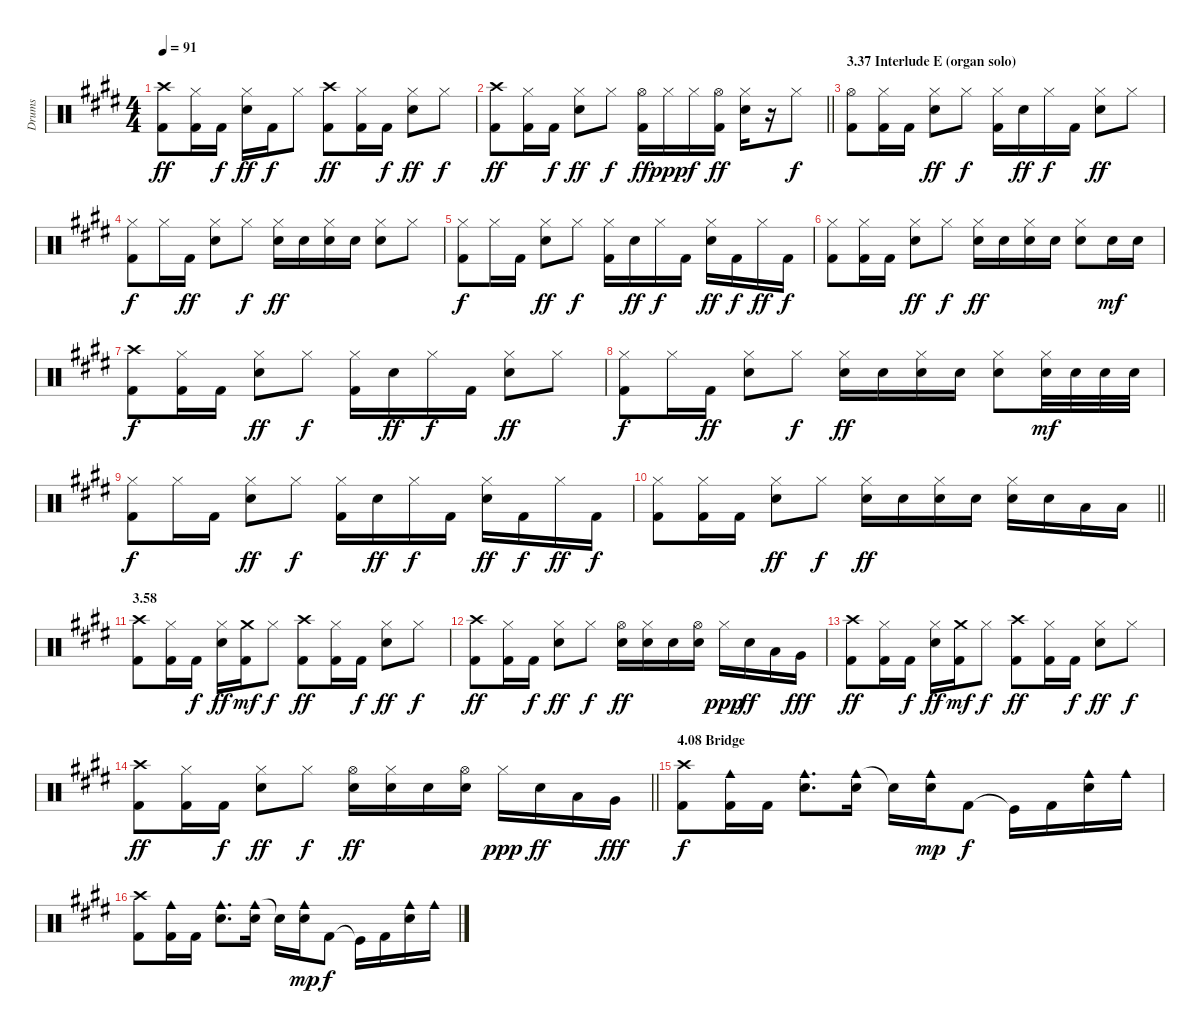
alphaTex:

\track ("Drums" "Drums") {instrument percussion}
\staff {score}
\articulation defaults
\ts (4 4)
\tempo 91
\clef neutral
\ks e
("Crash high (hit)" "Kick (hit) 2").8{dy ff} ("Hi-Hat (closed)" "Kick (hit) 2").16 "Kick (hit) 2".16{dy f} ("Hi-Hat (closed)" "Snare (hit) 2").16{dy ff} "Kick (hit) 2".16{dy f} "Hi-Hat (closed)".8 ("Crash high (hit)" "Kick (hit) 2").8{dy ff} ("Hi-Hat (closed)" "Kick (hit) 2").16 "Kick (hit) 2".16{dy f} ("Hi-Hat (closed)" "Snare (hit) 2").8{dy ff} "Hi-Hat (closed)".8{dy f} |
\barLineRight lightlight
("Crash high (hit)" "Kick (hit) 2").8{dy ff} ("Hi-Hat (closed)" "Kick (hit) 2").16 "Kick (hit) 2".16{dy f} ("Hi-Hat (closed)" "Snare (hit) 2").8{dy ff} "Hi-Hat (closed)".8{dy f} ("Hi-Hat (open)" "Kick (hit) 2").16{dy ff} "Hi-Hat (closed)".16{dy ppp} "Hi-Hat (closed)".16{dy f} ("Hi-Hat (open)" "Kick (hit) 2").16{dy ff} ("Hi-Hat (closed)" "Snare (hit) 2").16 r.16 "Hi-Hat (closed)".8{dy f} |
\section ("" "3.37 Interlude E (organ solo)")
("Hi-Hat (open)" "Kick (hit) 2").8 ("Hi-Hat (closed)" "Kick (hit) 2").16 "Kick (hit) 2".16 ("Hi-Hat (closed)" "Snare (hit) 2").8{dy ff} "Hi-Hat (closed)".8{dy f} ("Hi-Hat (closed)" "Kick (hit) 2").16 "Snare (hit) 2".16{dy ff} "Hi-Hat (closed)".16{dy f} "Kick (hit) 2".16 ("Hi-Hat (closed)" "Snare (hit) 2").8{dy ff} "Hi-Hat (closed)".8 |
("Hi-Hat (closed)" "Kick (hit) 2").8{dy f} "Hi-Hat (closed)".16 "Kick (hit) 2".16{dy ff} ("Hi-Hat (closed)" "Snare (hit) 2").8 "Hi-Hat (closed)".8{dy f} ("Hi-Hat (closed)" "Snare (hit) 2").16{dy ff} "Snare (hit) 2".16 ("Hi-Hat (closed)" "Snare (hit) 2").16 "Snare (hit) 2".16 ("Hi-Hat (closed)" "Snare (hit) 2").8 "Hi-Hat (closed)".8 |
("Hi-Hat (closed)" "Kick (hit) 2").8{dy f} "Hi-Hat (closed)".16 "Kick (hit) 2".16 ("Hi-Hat (closed)" "Snare (hit) 2").8{dy ff} "Hi-Hat (closed)".8{dy f} ("Hi-Hat (closed)" "Kick (hit) 2").16 "Snare (hit) 2".16{dy ff} "Hi-Hat (closed)".16{dy f} "Kick (hit) 2".16 ("Hi-Hat (closed)" "Snare (hit) 2").16{dy ff} "Kick (hit) 2".16{dy f} "Hi-Hat (closed)".16{dy ff} "Kick (hit) 2".16{dy f} |
("Hi-Hat (closed)" "Kick (hit) 2").8 ("Hi-Hat (closed)" "Kick (hit) 2").16 "Kick (hit) 2".16 ("Hi-Hat (closed)" "Snare (hit) 2").8{dy ff} "Hi-Hat (closed)".8{dy f} ("Hi-Hat (closed)" "Snare (hit) 2").16{dy ff} "Snare (hit) 2".16 ("Hi-Hat (closed)" "Snare (hit) 2").16 "Snare (hit) 2".16 ("Hi-Hat (closed)" "Snare (hit) 2").8 "Snare (hit) 2".16{dy mf} "Snare (hit) 2".16 |
("Crash high (hit)" "Kick (hit) 2").8{dy f} ("Hi-Hat (closed)" "Kick (hit) 2").16 "Kick (hit) 2".16 ("Hi-Hat (closed)" "Snare (hit) 2").8{dy ff} "Hi-Hat (closed)".8{dy f} ("Hi-Hat (closed)" "Kick (hit) 2").16 "Snare (hit) 2".16{dy ff} "Hi-Hat (closed)".16{dy f} "Kick (hit) 2".16 ("Hi-Hat (closed)" "Snare (hit) 2").8{dy ff} "Hi-Hat (closed)".8 |
("Hi-Hat (closed)" "Kick (hit) 2").8{dy f} "Hi-Hat (closed)".16 "Kick (hit) 2".16{dy ff} ("Hi-Hat (closed)" "Snare (hit) 2").8 "Hi-Hat (closed)".8{dy f} ("Hi-Hat (closed)" "Snare (hit) 2").16{dy ff} "Snare (hit) 2".16 ("Hi-Hat (closed)" "Snare (hit) 2").16 "Snare (hit) 2".16 ("Hi-Hat (closed)" "Snare (hit) 2").8 ("Hi-Hat (closed)" "Snare (hit) 2").32{dy mf} "Snare (hit) 2".32 "Snare (hit) 2".32 "Snare (hit) 2".32 |
("Hi-Hat (closed)" "Kick (hit) 2").8{dy f} "Hi-Hat (closed)".16 "Kick (hit) 2".16 ("Hi-Hat (closed)" "Snare (hit) 2").8{dy ff} "Hi-Hat (closed)".8{dy f} ("Hi-Hat (closed)" "Kick (hit) 2").16 "Snare (hit) 2".16{dy ff} "Hi-Hat (closed)".16{dy f} "Kick (hit) 2".16 ("Hi-Hat (closed)" "Snare (hit) 2").16{dy ff} "Kick (hit) 2".16{dy f} "Hi-Hat (closed)".16{dy ff} "Kick (hit) 2".16{dy f} |
\barLineRight lightlight
("Hi-Hat (closed)" "Kick (hit) 2").8 ("Hi-Hat (closed)" "Kick (hit) 2").16 "Kick (hit) 2".16 ("Hi-Hat (closed)" "Snare (hit) 2").8{dy ff} "Hi-Hat (closed)".8{dy f} ("Hi-Hat (closed)" "Snare (hit) 2").16{dy ff} "Snare (hit) 2".16 ("Hi-Hat (closed)" "Snare (hit) 2").16 "Snare (hit) 2".16 ("Hi-Hat (closed)" "Snare (hit) 2").16 "Snare (hit) 2".16 "Low Tom (hit)".16 "Low Tom (hit)".16 |
\section ("" "3.58")
("Crash high (hit)" "Kick (hit) 2").8 ("Hi-Hat (closed)" "Kick (hit) 2").16 "Kick (hit) 2".16{dy f} ("Hi-Hat (closed)" "Snare (hit) 2").16{dy ff} ("Crash medium (hit)" "Kick (hit) 2").16{dy mf} "Hi-Hat (closed)".8{dy f} ("Crash high (hit)" "Kick (hit) 2").8{dy ff} ("Hi-Hat (closed)" "Kick (hit) 2").16 "Kick (hit) 2".16{dy f} ("Hi-Hat (closed)" "Snare (hit) 2").8{dy ff} "Hi-Hat (closed)".8{dy f} |
("Crash high (hit)" "Kick (hit) 2").8{dy ff} ("Hi-Hat (closed)" "Kick (hit) 2").16 "Kick (hit) 2".16{dy f} ("Hi-Hat (closed)" "Snare (hit) 2").8{dy ff} "Hi-Hat (closed)".8{dy f} ("Hi-Hat (open)" "Snare (hit) 2").16{dy ff} ("Hi-Hat (closed)" "Snare (hit) 2").16 "Snare (hit) 2".16 ("Hi-Hat (open)" "Snare (hit) 2").16 "Hi-Hat (closed)".16{dy ppp} "Snare (hit) 2".16{dy ff} "Low Tom (hit)".16 "Very Low Tom (hit)".16{dy fff} |
("Crash high (hit)" "Kick (hit) 2").8{dy ff} ("Hi-Hat (closed)" "Kick (hit) 2").16 "Kick (hit) 2".16{dy f} ("Hi-Hat (closed)" "Snare (hit) 2").16{dy ff} ("Crash medium (hit)" "Kick (hit) 2").16{dy mf} "Hi-Hat (closed)".8{dy f} ("Crash high (hit)" "Kick (hit) 2").8{dy ff} ("Hi-Hat (closed)" "Kick (hit) 2").16 "Kick (hit) 2".16{dy f} ("Hi-Hat (closed)" "Snare (hit) 2").8{dy ff} "Hi-Hat (closed)".8{dy f} |
\barLineRight lightlight
("Crash high (hit)" "Kick (hit) 2").8{dy ff} ("Hi-Hat (closed)" "Kick (hit) 2").16 "Kick (hit) 2".16{dy f} ("Hi-Hat (closed)" "Snare (hit) 2").8{dy ff} "Hi-Hat (closed)".8{dy f} ("Hi-Hat (open)" "Snare (hit) 2").16{dy ff} ("Hi-Hat (closed)" "Snare (hit) 2").16 "Snare (hit) 2".16 ("Hi-Hat (open)" "Snare (hit) 2").16 "Hi-Hat (closed)".16{dy ppp} "Snare (hit) 2".16{dy ff} "Low Tom (hit)".16 "Very Low Tom (hit)".16{dy fff} |
\section ("" "4.08 Bridge")
("Crash high (hit)" "Kick (hit) 2").8{dy f} ("Cowbell medium (hit)" "Kick (hit) 2").16 "Kick (hit) 2".16 ("Cowbell medium (hit)" "Snare (hit) 2").8{d} ("Cowbell medium (hit)" "Snare (hit) 2").16 "Snare (hit) 2"{t}.16 ("Cowbell medium (hit)" "Snare (hit) 2").16{dy mp} "Kick (hit) 2".8{dy f} "Kick (hit)"{t}.16 "Kick (hit) 2".16 ("Cowbell medium (hit)" "Snare (hit) 2").16 "Cowbell medium (hit)".16 |
("Crash high (hit)" "Kick (hit) 2").8 ("Cowbell medium (hit)" "Kick (hit) 2").16 "Kick (hit) 2".16 ("Cowbell medium (hit)" "Snare (hit) 2").8{d} ("Cowbell medium (hit)" "Snare (hit) 2").16 "Snare (hit) 2"{t}.16 ("Cowbell medium (hit)" "Snare (hit) 2").16{dy mp} "Kick (hit) 2".8{dy f} "Kick (hit)"{t}.16 "Kick (hit) 2".16 ("Cowbell medium (hit)" "Snare (hit) 2").16 "Cowbell medium (hit)".16
